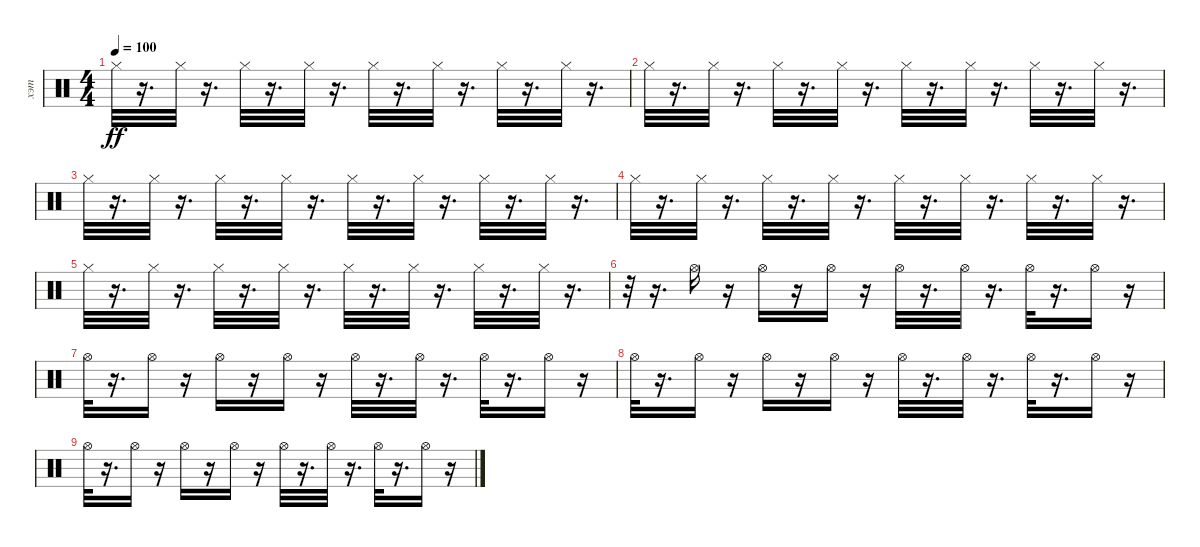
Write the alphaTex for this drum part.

\track ("хэт" "хэт") {instrument percussion}
\staff {score}
\articulation defaults
\ts (4 4)
\tempo 100
\clef neutral
\ks c "Hi-Hat (closed)".32{dy ff}
r.16{d} "Hi-Hat (closed)".32 r.16{d} "Hi-Hat (closed)".32 r.16{d} "Hi-Hat (closed)".32 r.16{d} "Hi-Hat (closed)".32 r.16{d} "Hi-Hat (closed)".32 r.16{d} "Hi-Hat (closed)".32 r.16{d} "Hi-Hat (closed)".32 r.16{d} |
"Hi-Hat (closed)".32 r.16{d} "Hi-Hat (closed)".32 r.16{d} "Hi-Hat (closed)".32 r.16{d} "Hi-Hat (closed)".32 r.16{d} "Hi-Hat (closed)".32 r.16{d} "Hi-Hat (closed)".32 r.16{d} "Hi-Hat (closed)".32 r.16{d} "Hi-Hat (closed)".32 r.16{d} |
"Hi-Hat (closed)".32 r.16{d} "Hi-Hat (closed)".32 r.16{d} "Hi-Hat (closed)".32 r.16{d} "Hi-Hat (closed)".32 r.16{d} "Hi-Hat (closed)".32 r.16{d} "Hi-Hat (closed)".32 r.16{d} "Hi-Hat (closed)".32 r.16{d} "Hi-Hat (closed)".32 r.16{d} |
"Hi-Hat (closed)".32 r.16{d} "Hi-Hat (closed)".32 r.16{d} "Hi-Hat (closed)".32 r.16{d} "Hi-Hat (closed)".32 r.16{d} "Hi-Hat (closed)".32 r.16{d} "Hi-Hat (closed)".32 r.16{d} "Hi-Hat (closed)".32 r.16{d} "Hi-Hat (closed)".32 r.16{d} |
"Hi-Hat (closed)".32 r.16{d} "Hi-Hat (closed)".32 r.16{d} "Hi-Hat (closed)".32 r.16{d} "Hi-Hat (closed)".32 r.16{d} "Hi-Hat (closed)".32 r.16{d} "Hi-Hat (closed)".32 r.16{d} "Hi-Hat (closed)".32 r.16{d} "Hi-Hat (closed)".32 r.16{d} |
r.32 r.16{d} "Hi-Hat (open)".16 r.16 "Hi-Hat (open)".16 r.16 "Hi-Hat (open)".16 r.16 "Hi-Hat (open)".32 r.16{d} "Hi-Hat (open)".32 r.16{d} "Hi-Hat (open)".32 r.16{d} "Hi-Hat (open)".16 r.16 |
"Hi-Hat (open)".32 r.16{d} "Hi-Hat (open)".16 r.16 "Hi-Hat (open)".16 r.16 "Hi-Hat (open)".16 r.16 "Hi-Hat (open)".32 r.16{d} "Hi-Hat (open)".32 r.16{d} "Hi-Hat (open)".32 r.16{d} "Hi-Hat (open)".16 r.16 |
"Hi-Hat (open)".32 r.16{d} "Hi-Hat (open)".16 r.16 "Hi-Hat (open)".16 r.16 "Hi-Hat (open)".16 r.16 "Hi-Hat (open)".32 r.16{d} "Hi-Hat (open)".32 r.16{d} "Hi-Hat (open)".32 r.16{d} "Hi-Hat (open)".16 r.16 |
"Hi-Hat (open)".32 r.16{d} "Hi-Hat (open)".16 r.16 "Hi-Hat (open)".16 r.16 "Hi-Hat (open)".16 r.16 "Hi-Hat (open)".32 r.16{d} "Hi-Hat (open)".32 r.16{d} "Hi-Hat (open)".32 r.16{d} "Hi-Hat (open)".16 r.16
